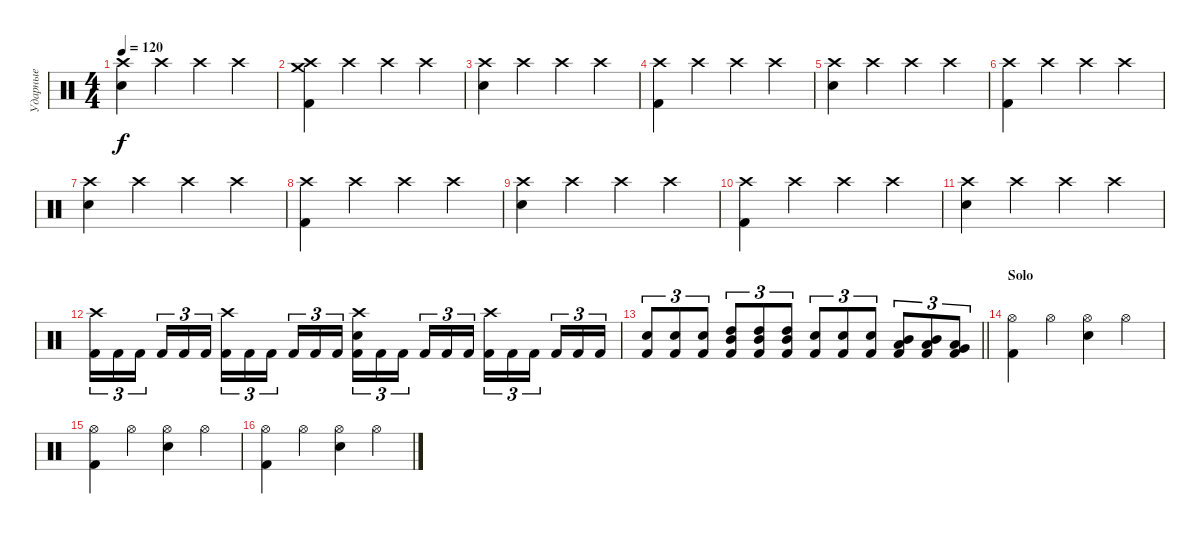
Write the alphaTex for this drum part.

\track ("Ударные" "Ударные") {instrument percussion}
\staff {score}
\articulation defaults
\ts (4 4)
\tempo 120
\clef neutral
\ks c
("Crash high (hit)" "Snare (hit) 2").4{dy f} "Crash high (hit)".4 "Crash high (hit)".4 "Crash high (hit)".4 |
("Crash high (hit)" "Crash medium (hit)" "Kick (hit) 2").4 "Crash high (hit)".4 "Crash high (hit)".4 "Crash high (hit)".4 |
("Crash high (hit)" "Snare (hit) 2").4 "Crash high (hit)".4 "Crash high (hit)".4 "Crash high (hit)".4 |
("Crash high (hit)" "Kick (hit) 2").4 "Crash high (hit)".4 "Crash high (hit)".4 "Crash high (hit)".4 |
("Crash high (hit)" "Snare (hit) 2").4 "Crash high (hit)".4 "Crash high (hit)".4 "Crash high (hit)".4 |
("Crash high (hit)" "Kick (hit) 2").4 "Crash high (hit)".4 "Crash high (hit)".4 "Crash high (hit)".4 |
("Crash high (hit)" "Snare (hit) 2").4 "Crash high (hit)".4 "Crash high (hit)".4 "Crash high (hit)".4 |
("Crash high (hit)" "Kick (hit) 2").4 "Crash high (hit)".4 "Crash high (hit)".4 "Crash high (hit)".4 |
("Crash high (hit)" "Snare (hit) 2").4 "Crash high (hit)".4 "Crash high (hit)".4 "Crash high (hit)".4 |
("Crash high (hit)" "Kick (hit) 2").4 "Crash high (hit)".4 "Crash high (hit)".4 "Crash high (hit)".4 |
("Crash high (hit)" "Snare (hit) 2").4 "Crash high (hit)".4 "Crash high (hit)".4 "Crash high (hit)".4 |
("Crash high (hit)" "Kick (hit) 2").16{tu (3 2)} "Kick (hit) 2".16{tu (3 2)} "Kick (hit) 2".16{tu (3 2) beam splitsecondary} "Kick (hit) 2".16{tu (3 2)} "Kick (hit) 2".16{tu (3 2)} "Kick (hit) 2".16{tu (3 2)} ("Crash high (hit)" "Kick (hit) 2").16{tu (3 2)} "Kick (hit) 2".16{tu (3 2)} "Kick (hit) 2".16{tu (3 2) beam splitsecondary} "Kick (hit) 2".16{tu (3 2)} "Kick (hit) 2".16{tu (3 2)} "Kick (hit) 2".16{tu (3 2)} ("Crash high (hit)" "Snare (hit) 2" "Kick (hit) 2").16{tu (3 2)} "Kick (hit) 2".16{tu (3 2)} "Kick (hit) 2".16{tu (3 2) beam splitsecondary} "Kick (hit) 2".16{tu (3 2)} "Kick (hit) 2".16{tu (3 2)} "Kick (hit) 2".16{tu (3 2)} ("Crash high (hit)" "Kick (hit) 2").16{tu (3 2)} "Kick (hit) 2".16{tu (3 2)} "Kick (hit) 2".16{tu (3 2) beam splitsecondary} "Kick (hit) 2".16{tu (3 2)} "Kick (hit) 2".16{tu (3 2)} "Kick (hit) 2".16{tu (3 2)} |
\barLineRight lightlight
("Snare (hit) 2" "Kick (hit) 2").8{tu (3 2)} ("Snare (hit) 2" "Kick (hit) 2").8{tu (3 2)} ("Snare (hit) 2" "Kick (hit) 2").8{tu (3 2)} ("Mid Tom (hit)" "High Tom (hit)" "Kick (hit) 2").8{tu (3 2)} ("Mid Tom (hit)" "High Tom (hit)" "Kick (hit) 2").8{tu (3 2)} ("Mid Tom (hit)" "High Tom (hit)" "Kick (hit) 2").8{tu (3 2)} ("Snare (hit) 2" "Kick (hit) 2").8{tu (3 2)} ("Snare (hit) 2" "Kick (hit) 2").8{tu (3 2)} ("Snare (hit) 2" "Kick (hit) 2").8{tu (3 2)} ("Low Tom (hit)" "Mid Tom (hit)" "Kick (hit) 2").8{tu (3 2)} ("Low Tom (hit)" "Mid Tom (hit)" "Kick (hit) 2").8{tu (3 2)} ("Very Low Tom (hit)" "Low Floor Tom (hit)" "Kick (hit) 2").8{tu (3 2)} |
\section ("" "Solo ")
("Hi-Hat (open)" "Kick (hit) 2").4 "Hi-Hat (open)".4 ("Hi-Hat (open)" "Snare (hit) 2").4 "Hi-Hat (open)".4 |
("Hi-Hat (open)" "Kick (hit) 2").4 "Hi-Hat (open)".4 ("Hi-Hat (open)" "Snare (hit) 2").4 "Hi-Hat (open)".4 |
("Hi-Hat (open)" "Kick (hit) 2").4 "Hi-Hat (open)".4 ("Hi-Hat (open)" "Snare (hit) 2").4 "Hi-Hat (open)".4
